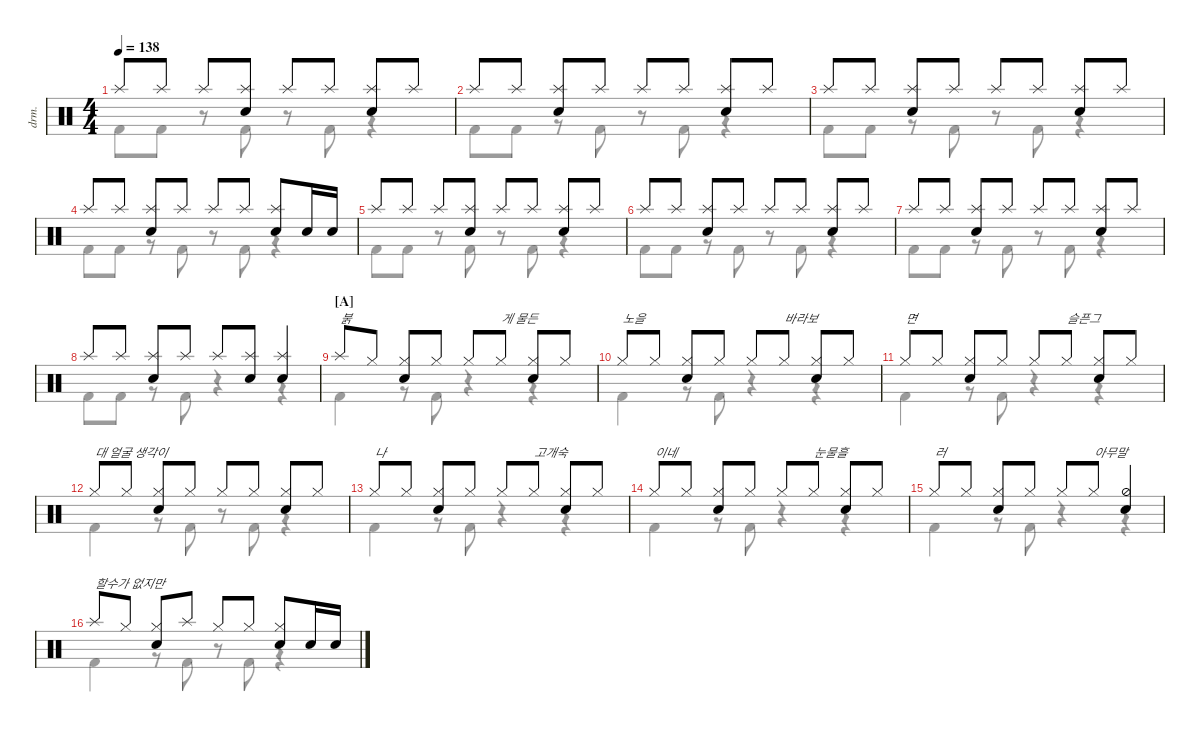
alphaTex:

\defaultSystemsLayout 4
\hideDynamics
\bracketExtendMode nobrackets
\track ("Drumkit" "drm.") {instrument percussion}
\staff {score}
\articulation defaults
\voice
\ts (4 4)
\tempo 138
\clef neutral
\ks c "Splash (hit)".8{dy mf beam Up} "Splash (hit)".8{beam Up} "Splash (hit)".8{beam Up}
("Splash (hit)" "Snare (hit) 2").8{beam Up} "Splash (hit)".8{beam Up} "Splash (hit)".8{beam Up} ("Splash (hit)" "Snare (hit) 2").8{beam Up} "Splash (hit)".8{beam Up} |
"Splash (hit)".8{beam Up} "Splash (hit)".8{beam Up} ("Splash (hit)" "Snare (hit) 2").8{beam Up} "Splash (hit)".8{beam Up} "Splash (hit)".8{beam Up} "Splash (hit)".8{beam Up} ("Splash (hit)" "Snare (hit) 2").8{beam Up} "Splash (hit)".8{beam Up} |
"Splash (hit)".8{beam Up} "Splash (hit)".8{beam Up} ("Splash (hit)" "Snare (hit) 2").8{beam Up} "Splash (hit)".8{beam Up} "Splash (hit)".8{beam Up} "Splash (hit)".8{beam Up} ("Splash (hit)" "Snare (hit) 2").8{beam Up} "Splash (hit)".8{beam Up} |
"Splash (hit)".8{beam Up} "Splash (hit)".8{beam Up} ("Splash (hit)" "Snare (hit) 2").8{beam Up} "Splash (hit)".8{beam Up} "Splash (hit)".8{beam Up} "Splash (hit)".8{beam Up} ("Splash (hit)" "Snare (hit) 2").8{beam Up} "Snare (hit) 2".16{beam Up} "Snare (hit) 2".16{beam Up} |
"Splash (hit)".8{beam Up} "Splash (hit)".8{beam Up} "Splash (hit)".8{beam Up} ("Splash (hit)" "Snare (hit) 2").8{beam Up} "Splash (hit)".8{beam Up} "Splash (hit)".8{beam Up} ("Splash (hit)" "Snare (hit) 2").8{beam Up} "Splash (hit)".8{beam Up} |
"Splash (hit)".8{beam Up} "Splash (hit)".8{beam Up} ("Splash (hit)" "Snare (hit) 2").8{beam Up} "Splash (hit)".8{beam Up} "Splash (hit)".8{beam Up} "Splash (hit)".8{beam Up} ("Splash (hit)" "Snare (hit) 2").8{beam Up} "Splash (hit)".8{beam Up} |
"Splash (hit)".8{beam Up} "Splash (hit)".8{beam Up} ("Splash (hit)" "Snare (hit) 2").8{beam Up} "Splash (hit)".8{beam Up} "Splash (hit)".8{beam Up} "Splash (hit)".8{beam Up} ("Splash (hit)" "Snare (hit) 2").8{beam Up} "Splash (hit)".8{beam Up} |
"Splash (hit)".8{beam Up} "Splash (hit)".8{beam Up} ("Splash (hit)" "Snare (hit) 2").8{beam Up} "Splash (hit)".8{beam Up} "Splash (hit)".8{beam Up} ("Splash (hit)" "Snare (hit) 2").8{beam Up} ("Splash (hit)" "Snare (hit) 2").4{beam Up} |
\section ("A" "")
"Splash (hit)".8{txt "붉" beam Up} "Hi-Hat (closed)".8{beam Up} ("Hi-Hat (closed)" "Snare (hit) 2").8{beam Up} "Hi-Hat (closed)".8{beam Up} "Hi-Hat (closed)".8{beam Up} "Hi-Hat (closed)".8{txt "게 물든" beam Up} ("Hi-Hat (closed)" "Snare (hit) 2").8{beam Up} "Hi-Hat (closed)".8{beam Up} |
"Hi-Hat (closed)".8{txt "노을" beam Up} "Hi-Hat (closed)".8{beam Up} ("Hi-Hat (closed)" "Snare (hit) 2").8{beam Up} "Hi-Hat (closed)".8{beam Up} "Hi-Hat (closed)".8{beam Up} "Hi-Hat (closed)".8{txt "바라보" beam Up} ("Hi-Hat (closed)" "Snare (hit) 2").8{beam Up} "Hi-Hat (closed)".8{beam Up} |
"Hi-Hat (closed)".8{txt "면" beam Up} "Hi-Hat (closed)".8{beam Up} ("Hi-Hat (closed)" "Snare (hit) 2").8{beam Up} "Hi-Hat (closed)".8{beam Up} "Hi-Hat (closed)".8{beam Up} "Hi-Hat (closed)".8{txt "슬픈그" beam Up} ("Hi-Hat (closed)" "Snare (hit) 2").8{beam Up} "Hi-Hat (closed)".8{beam Up} |
"Hi-Hat (closed)".8{txt "대 얼굴 생각이" beam Up} "Hi-Hat (closed)".8{beam Up} ("Hi-Hat (closed)" "Snare (hit) 2").8{beam Up} "Hi-Hat (closed)".8{beam Up} "Hi-Hat (closed)".8{beam Up} "Hi-Hat (closed)".8{beam Up} ("Hi-Hat (closed)" "Snare (hit) 2").8{beam Up} "Hi-Hat (closed)".8{beam Up} |
"Hi-Hat (closed)".8{txt "나" beam Up} "Hi-Hat (closed)".8{beam Up} ("Hi-Hat (closed)" "Snare (hit) 2").8{beam Up} "Hi-Hat (closed)".8{beam Up} "Hi-Hat (closed)".8{beam Up} "Hi-Hat (closed)".8{txt "고개숙" beam Up} ("Hi-Hat (closed)" "Snare (hit) 2").8{beam Up} "Hi-Hat (closed)".8{beam Up} |
"Hi-Hat (closed)".8{txt "이네" beam Up} "Hi-Hat (closed)".8{beam Up} ("Hi-Hat (closed)" "Snare (hit) 2").8{beam Up} "Hi-Hat (closed)".8{beam Up} "Hi-Hat (closed)".8{beam Up} "Hi-Hat (closed)".8{txt "눈물흘" beam Up} ("Hi-Hat (closed)" "Snare (hit) 2").8{beam Up} "Hi-Hat (closed)".8{beam Up} |
"Hi-Hat (closed)".8{txt "러" beam Up} "Hi-Hat (closed)".8{beam Up} ("Hi-Hat (closed)" "Snare (hit) 2").8{beam Up} "Hi-Hat (closed)".8{beam Up} "Hi-Hat (closed)".8{beam Up} "Hi-Hat (closed)".8{txt "아무말" beam Up} ("Hi-Hat (half)" "Snare (hit) 2").4{beam Up} |
"Splash (hit)".8{txt "할수가 없지만" beam Up} "Hi-Hat (closed)".8{beam Up} ("Hi-Hat (closed)" "Snare (hit) 2").8{beam Up} "Splash (hit)".8{beam Up} "Hi-Hat (closed)".8{beam Up} "Hi-Hat (closed)".8{beam Up} ("Hi-Hat (closed)" "Snare (hit) 2").8{beam Up} "Snare (hit) 2".16{beam Up} "Snare (hit) 2".16{beam Up}
\voice
\clef neutral
\ottava regular
\simile none
\ks c
|
|
|
|
|
|
|
|
|
|
|
|
|
|
|
\voice
\clef neutral
\ottava regular
\simile none
\ks c "Kick (hit) 2".8{dy mf beam Down} "Kick (hit) 2".8{beam Down}
r.8{beam Down} "Kick (hit) 2".8{beam Down} r.8{beam Down} "Kick (hit) 2".8{beam Down} r.4{beam Down} |
"Kick (hit) 2".8{beam Down} "Kick (hit) 2".8{beam Down} r.8{beam Down} "Kick (hit) 2".8{beam Down} r.8{beam Down} "Kick (hit) 2".8{beam Down} r.4{beam Down} |
"Kick (hit) 2".8{beam Down} "Kick (hit) 2".8{beam Down} r.8{beam Down} "Kick (hit) 2".8{beam Down} r.8{beam Down} "Kick (hit) 2".8{beam Down} r.4{beam Down} |
"Kick (hit) 2".8{beam Down} "Kick (hit) 2".8{beam Down} r.8{beam Down} "Kick (hit) 2".8{beam Down} r.8{beam Down} "Kick (hit) 2".8{beam Down} r.4{beam Down} |
"Kick (hit) 2".8{beam Down} "Kick (hit) 2".8{beam Down} r.8{beam Down} "Kick (hit) 2".8{beam Down} r.8{beam Down} "Kick (hit) 2".8{beam Down} r.4{beam Down} |
"Kick (hit) 2".8{beam Down} "Kick (hit) 2".8{beam Down} r.8{beam Down} "Kick (hit) 2".8{beam Down} r.8{beam Down} "Kick (hit) 2".8{beam Down} r.4{beam Down} |
"Kick (hit) 2".8{beam Down} "Kick (hit) 2".8{beam Down} r.8{beam Down} "Kick (hit) 2".8{beam Down} r.8{beam Down} "Kick (hit) 2".8{beam Down} r.4{beam Down} |
"Kick (hit) 2".8{beam Down} "Kick (hit) 2".8{beam Down} r.8{beam Down} "Kick (hit) 2".8{beam Down} r.4{beam Down} r.4{beam Down} |
"Kick (hit) 2".4{beam Down} r.8{beam Down} "Kick (hit) 2".8{beam Down} r.4{beam Down} r.4{beam Down} |
"Kick (hit) 2".4{beam Down} r.8{beam Down} "Kick (hit) 2".8{beam Down} r.4{beam Down} r.4{beam Down} |
"Kick (hit) 2".4{beam Down} r.8{beam Down} "Kick (hit) 2".8{beam Down} r.4{beam Down} r.4{beam Down} |
"Kick (hit) 2".4{beam Down} r.8{beam Down} "Kick (hit) 2".8{beam Down} r.8{beam Down} "Kick (hit) 2".8{beam Down} r.4{beam Down} |
"Kick (hit) 2".4{beam Down} r.8{beam Down} "Kick (hit) 2".8{beam Down} r.4{beam Down} r.4{beam Down} |
"Kick (hit) 2".4{beam Down} r.8{beam Down} "Kick (hit) 2".8{beam Down} r.4{beam Down} r.4{beam Down} |
"Kick (hit) 2".4{beam Down} r.8{beam Down} "Kick (hit) 2".8{beam Down} r.4{beam Down} r.4{beam Down} |
"Kick (hit) 2".4{beam Down} r.8{beam Down} "Kick (hit) 2".8{beam Down} r.8{beam Down} "Kick (hit) 2".8{beam Down} r.4{beam Down}
